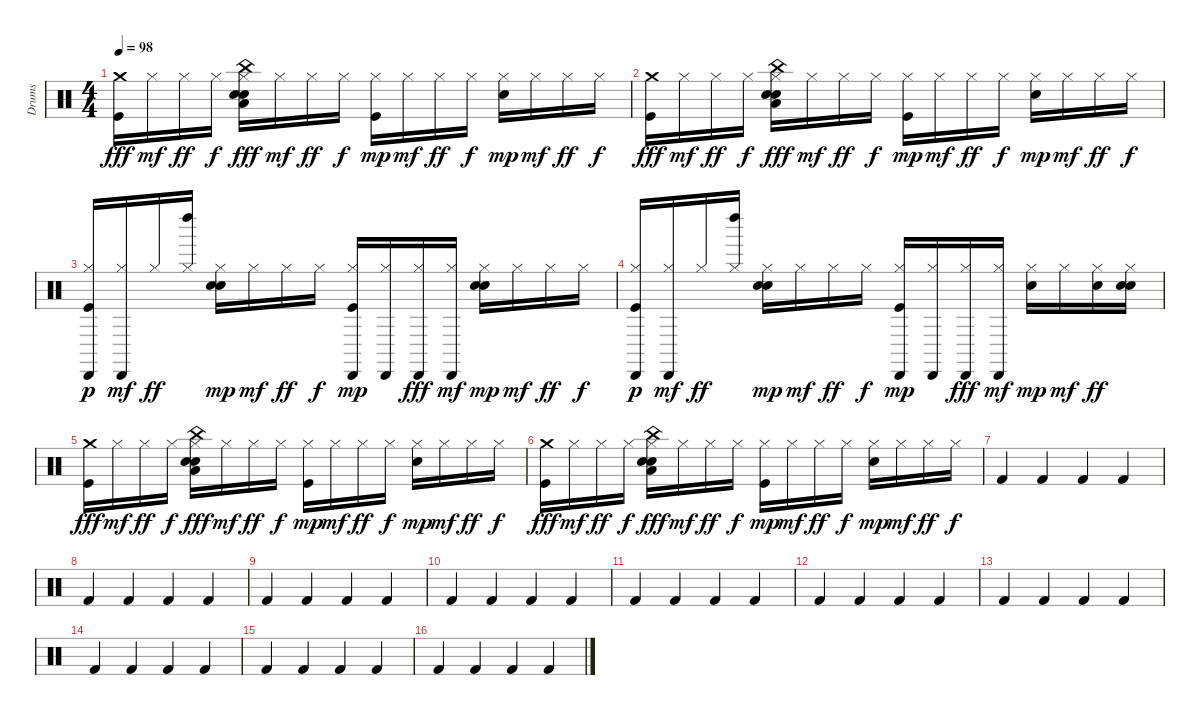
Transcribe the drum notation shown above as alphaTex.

\track ("Drums" "Drums") {instrument percussion}
\staff {score}
\articulation defaults
\ts (4 4)
\tempo 98
\clef neutral
\ks c
("Crash medium (hit)" "Kick (hit)").16{dy fff} "Hi-Hat (closed)".16{dy mf} "Hi-Hat (closed)".16{dy ff} "Hi-Hat (closed)".16{dy f} ("Snare (hit) 2" "Hi-Hat (closed)" "Low Floor Tom (hit)" "China (hit)" "Hand Clap (hit)").16{dy fff} "Hi-Hat (closed)".16{dy mf} "Hi-Hat (closed)".16{dy ff} "Hi-Hat (closed)".16{dy f} ("Kick (hit)" "Hi-Hat (closed)").16{dy mp} "Hi-Hat (closed)".16{dy mf} "Hi-Hat (closed)".16{dy ff} "Hi-Hat (closed)".16{dy f} ("Snare (hit) 2" "Hi-Hat (closed)").16{dy mp} "Hi-Hat (closed)".16{dy mf} "Hi-Hat (closed)".16{dy ff} "Hi-Hat (closed)".16{dy f} |
("Crash medium (hit)" "Kick (hit)").16{dy fff} "Hi-Hat (closed)".16{dy mf} "Hi-Hat (closed)".16{dy ff} "Hi-Hat (closed)".16{dy f} ("Snare (hit) 2" "Hi-Hat (closed)" "Low Floor Tom (hit)" "China (hit)" "Hand Clap (hit)").16{dy fff} "Hi-Hat (closed)".16{dy mf} "Hi-Hat (closed)".16{dy ff} "Hi-Hat (closed)".16{dy f} ("Kick (hit)" "Hi-Hat (closed)").16{dy mp} "Hi-Hat (closed)".16{dy mf} "Hi-Hat (closed)".16{dy ff} "Hi-Hat (closed)".16{dy f} ("Snare (hit) 2" "Hi-Hat (closed)").16{dy mp} "Hi-Hat (closed)".16{dy mf} "Hi-Hat (closed)".16{dy ff} "Hi-Hat (closed)".16{dy f} |
("Kick (hit)" "Hi-Hat (closed)" "Cabasa (hit)").16{dy p} ("Hi-Hat (closed)" "Cabasa (hit)").16{dy mf} "Hi-Hat (closed)".16{dy ff} ("Hi-Hat (closed)" "Left Maraca (hit)").16 ("Snare (hit) 2" "Hi-Hat (closed)" "Hand Clap (hit)").16{dy mp} "Hi-Hat (closed)".16{dy mf} "Hi-Hat (closed)".16{dy ff} "Hi-Hat (closed)".16{dy f} ("Kick (hit)" "Hi-Hat (closed)" "Cabasa (hit)").16{dy mp} ("Cabasa (hit)" "Hi-Hat (closed)").16 ("Hi-Hat (closed)" "Cabasa (hit)").16{dy fff} ("Hi-Hat (closed)" "Cabasa (hit)").16{dy mf} ("Snare (hit) 2" "Hi-Hat (closed)" "Hand Clap (hit)").16{dy mp} "Hi-Hat (closed)".16{dy mf} "Hi-Hat (closed)".16{dy ff} "Hi-Hat (closed)".16{dy f} |
("Kick (hit)" "Hi-Hat (closed)" "Cabasa (hit)").16{dy p} ("Hi-Hat (closed)" "Cabasa (hit)").16{dy mf} "Hi-Hat (closed)".16{dy ff} ("Hi-Hat (closed)" "Left Maraca (hit)").16 ("Snare (hit) 2" "Hi-Hat (closed)" "Hand Clap (hit)").16{dy mp} "Hi-Hat (closed)".16{dy mf} "Hi-Hat (closed)".16{dy ff} "Hi-Hat (closed)".16{dy f} ("Kick (hit)" "Hi-Hat (closed)" "Cabasa (hit)").16{dy mp} ("Cabasa (hit)" "Hi-Hat (closed)").16 ("Hi-Hat (closed)" "Cabasa (hit)").16{dy fff} ("Hi-Hat (closed)" "Cabasa (hit)").16{dy mf} ("Snare (hit) 2" "Hi-Hat (closed)").16{dy mp} "Hi-Hat (closed)".16{dy mf} ("Snare (hit) 2" "Hi-Hat (closed)").16{dy ff} ("Snare (hit) 2" "Hi-Hat (closed)" "Hand Clap (hit)").16 |
("Crash medium (hit)" "Kick (hit)").16{dy fff} "Hi-Hat (closed)".16{dy mf} "Hi-Hat (closed)".16{dy ff} "Hi-Hat (closed)".16{dy f} ("Snare (hit) 2" "Hi-Hat (closed)" "Low Floor Tom (hit)" "China (hit)" "Hand Clap (hit)").16{dy fff} "Hi-Hat (closed)".16{dy mf} "Hi-Hat (closed)".16{dy ff} "Hi-Hat (closed)".16{dy f} ("Kick (hit)" "Hi-Hat (closed)").16{dy mp} "Hi-Hat (closed)".16{dy mf} "Hi-Hat (closed)".16{dy ff} "Hi-Hat (closed)".16{dy f} ("Snare (hit) 2" "Hi-Hat (closed)").16{dy mp} "Hi-Hat (closed)".16{dy mf} "Hi-Hat (closed)".16{dy ff} "Hi-Hat (closed)".16{dy f} |
("Crash medium (hit)" "Kick (hit)").16{dy fff} "Hi-Hat (closed)".16{dy mf} "Hi-Hat (closed)".16{dy ff} "Hi-Hat (closed)".16{dy f} ("Snare (hit) 2" "Hi-Hat (closed)" "Low Floor Tom (hit)" "China (hit)" "Hand Clap (hit)").16{dy fff} "Hi-Hat (closed)".16{dy mf} "Hi-Hat (closed)".16{dy ff} "Hi-Hat (closed)".16{dy f} ("Kick (hit)" "Hi-Hat (closed)").16{dy mp} "Hi-Hat (closed)".16{dy mf} "Hi-Hat (closed)".16{dy ff} "Hi-Hat (closed)".16{dy f} ("Snare (hit) 2" "Hi-Hat (closed)").16{dy mp} "Hi-Hat (closed)".16{dy mf} "Hi-Hat (closed)".16{dy ff} "Hi-Hat (closed)".16{dy f} |
"Kick (hit) 2".4 "Kick (hit) 2".4 "Kick (hit) 2".4 "Kick (hit) 2".4 |
"Kick (hit) 2".4 "Kick (hit) 2".4 "Kick (hit) 2".4 "Kick (hit) 2".4 |
"Kick (hit) 2".4 "Kick (hit) 2".4 "Kick (hit) 2".4 "Kick (hit) 2".4 |
"Kick (hit) 2".4 "Kick (hit) 2".4 "Kick (hit) 2".4 "Kick (hit) 2".4 |
"Kick (hit) 2".4 "Kick (hit) 2".4 "Kick (hit) 2".4 "Kick (hit) 2".4 |
"Kick (hit) 2".4 "Kick (hit) 2".4 "Kick (hit) 2".4 "Kick (hit) 2".4 |
"Kick (hit) 2".4 "Kick (hit) 2".4 "Kick (hit) 2".4 "Kick (hit) 2".4 |
"Kick (hit) 2".4 "Kick (hit) 2".4 "Kick (hit) 2".4 "Kick (hit) 2".4 |
"Kick (hit) 2".4 "Kick (hit) 2".4 "Kick (hit) 2".4 "Kick (hit) 2".4 |
"Kick (hit) 2".4 "Kick (hit) 2".4 "Kick (hit) 2".4 "Kick (hit) 2".4
